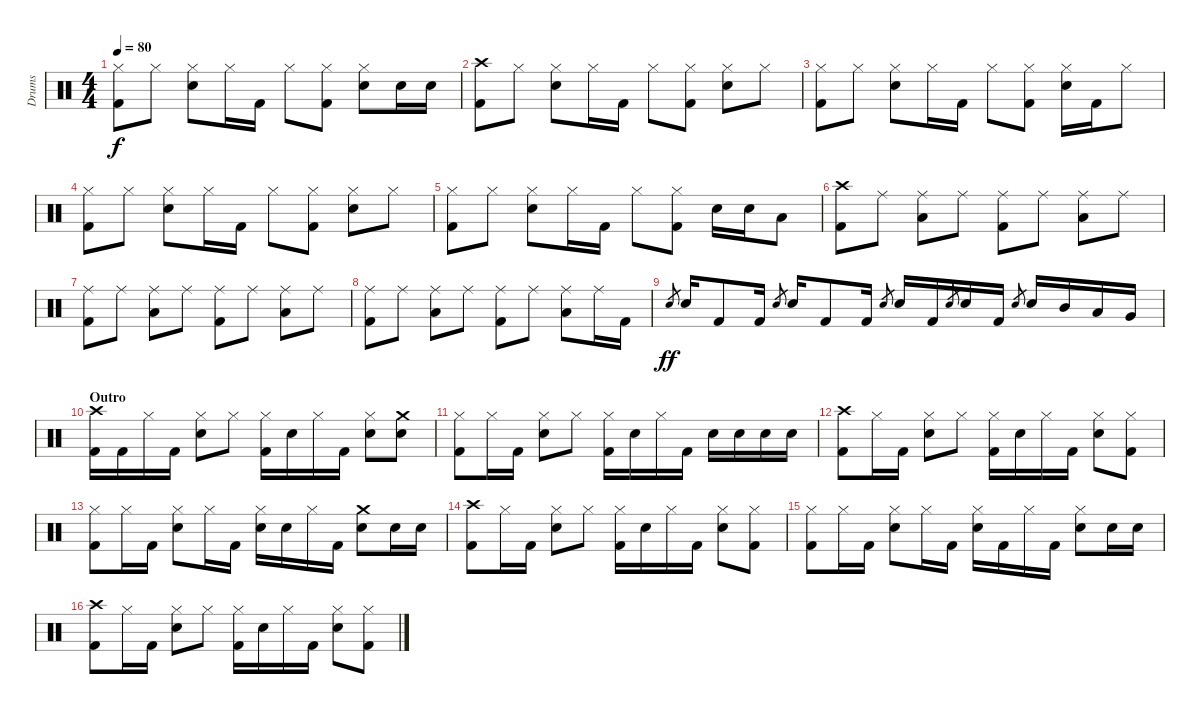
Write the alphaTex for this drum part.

\track ("Drums" "Drums") {instrument percussion}
\staff {score}
\articulation defaults
\ts (4 4)
\tempo 80
\clef neutral
\ks c
("Hi-Hat (closed)" "Kick (hit) 2").8{dy f} "Hi-Hat (closed)".8 ("Hi-Hat (closed)" "Snare (hit) 2").8 "Hi-Hat (closed)".16 "Kick (hit) 2".16 "Hi-Hat (closed)".8 ("Hi-Hat (closed)" "Kick (hit) 2").8 ("Hi-Hat (closed)" "Snare (hit) 2").8 "Snare (hit) 2".16 "Snare (hit) 2".16 |
("Crash high (hit)" "Kick (hit) 2").8 "Hi-Hat (closed)".8 ("Hi-Hat (closed)" "Snare (hit) 2").8 "Hi-Hat (closed)".16 "Kick (hit) 2".16 "Hi-Hat (closed)".8 ("Hi-Hat (closed)" "Kick (hit) 2").8 ("Hi-Hat (closed)" "Snare (hit) 2").8 "Hi-Hat (closed)".8 |
("Hi-Hat (closed)" "Kick (hit) 2").8 "Hi-Hat (closed)".8 ("Hi-Hat (closed)" "Snare (hit) 2").8 "Hi-Hat (closed)".16 "Kick (hit) 2".16 "Hi-Hat (closed)".8 ("Hi-Hat (closed)" "Kick (hit) 2").8 ("Hi-Hat (closed)" "Snare (hit) 2").16 "Kick (hit) 2".16 "Hi-Hat (closed)".8 |
("Hi-Hat (closed)" "Kick (hit) 2").8 "Hi-Hat (closed)".8 ("Hi-Hat (closed)" "Snare (hit) 2").8 "Hi-Hat (closed)".16 "Kick (hit) 2".16 "Hi-Hat (closed)".8 ("Hi-Hat (closed)" "Kick (hit) 2").8 ("Hi-Hat (closed)" "Snare (hit) 2").8 "Hi-Hat (closed)".8 |
("Hi-Hat (closed)" "Kick (hit) 2").8 "Hi-Hat (closed)".8 ("Hi-Hat (closed)" "Snare (hit) 2").8 "Hi-Hat (closed)".16 "Kick (hit) 2".16 "Hi-Hat (closed)".8 ("Hi-Hat (closed)" "Kick (hit) 2").8 "Snare (hit) 2".16 "Snare (hit) 2".16 "Low Tom (hit)".8 |
("Crash high (hit)" "Kick (hit) 2").8 "Ride (middle)".8 ("Ride (middle)" "Low Tom (hit)").8 "Ride (middle)".8 ("Ride (middle)" "Kick (hit) 2").8 "Ride (middle)".8 ("Ride (middle)" "Low Tom (hit)").8 "Ride (middle)".8 |
("Ride (middle)" "Kick (hit) 2").8 "Ride (middle)".8 ("Ride (middle)" "Low Tom (hit)").8 "Ride (middle)".8 ("Ride (middle)" "Kick (hit) 2").8 "Ride (middle)".8 ("Ride (middle)" "Low Tom (hit)").8 "Ride (middle)".8 |
("Ride (middle)" "Kick (hit) 2").8 "Ride (middle)".8 ("Ride (middle)" "Low Tom (hit)").8 "Ride (middle)".8 ("Ride (middle)" "Kick (hit) 2").8 "Ride (middle)".8 ("Ride (middle)" "Low Tom (hit)").8 "Ride (middle)".16 "Kick (hit) 2".16 |
"Snare (hit) 2".8{gr dy ff} "Snare (hit) 2".16 "Kick (hit) 2".8 "Kick (hit) 2".16 "Snare (hit) 2".8{gr} "Snare (hit) 2".16 "Kick (hit) 2".8 "Kick (hit) 2".16 "Snare (hit) 2".8{gr} "Snare (hit) 2".16 "Kick (hit) 2".16 "Snare (hit) 2".8{gr} "Snare (hit) 2".16 "Kick (hit) 2".16 "Snare (hit) 2".8{gr} "Snare (hit) 2".16 "Mid Tom (hit)".16 "Low Tom (hit)".16 "Very Low Tom (hit)".16 |
\section ("" "Outro")
("Crash high (hit)" "Kick (hit) 2").16 "Kick (hit) 2".16 "Hi-Hat (closed)".16 "Kick (hit) 2".16 ("Hi-Hat (closed)" "Snare (hit) 2").8 "Hi-Hat (closed)".8 ("Hi-Hat (closed)" "Kick (hit) 2").16 "Snare (hit) 2".16 "Hi-Hat (closed)".16 "Kick (hit) 2".16 ("Hi-Hat (closed)" "Snare (hit) 2").8 ("Crash medium (hit)" "Snare (hit) 2").8 |
("Hi-Hat (closed)" "Kick (hit) 2").8 "Hi-Hat (closed)".16 "Kick (hit) 2".16 ("Hi-Hat (closed)" "Snare (hit) 2").8 "Hi-Hat (closed)".8 ("Hi-Hat (closed)" "Kick (hit) 2").16 "Snare (hit) 2".16 "Hi-Hat (closed)".16 "Kick (hit) 2".16 "Snare (hit) 2".16 "Snare (hit) 2".16 "Snare (hit) 2".16 "Snare (hit) 2".16 |
("Crash high (hit)" "Kick (hit) 2").8 "Hi-Hat (closed)".16 "Kick (hit) 2".16 ("Hi-Hat (closed)" "Snare (hit) 2").8 "Hi-Hat (closed)".8 ("Hi-Hat (closed)" "Kick (hit) 2").16 "Snare (hit) 2".16 "Hi-Hat (closed)".16 "Kick (hit) 2".16 ("Hi-Hat (closed)" "Snare (hit) 2").8 ("Hi-Hat (closed)" "Kick (hit) 2").8 |
("Hi-Hat (closed)" "Kick (hit) 2").8 "Hi-Hat (closed)".16 "Kick (hit) 2".16 ("Hi-Hat (closed)" "Snare (hit) 2").8 "Hi-Hat (closed)".16 "Kick (hit) 2".16 ("Hi-Hat (closed)" "Snare (hit) 2").16 "Snare (hit) 2".16 "Hi-Hat (closed)".16 "Kick (hit) 2".16 ("Crash medium (hit)" "Snare (hit) 2").8 "Snare (hit) 2".16 "Snare (hit) 2".16 |
("Crash high (hit)" "Kick (hit) 2").8 "Hi-Hat (closed)".16 "Kick (hit) 2".16 ("Hi-Hat (closed)" "Snare (hit) 2").8 "Hi-Hat (closed)".8 ("Hi-Hat (closed)" "Kick (hit) 2").16 "Snare (hit) 2".16 "Hi-Hat (closed)".16 "Kick (hit) 2".16 ("Hi-Hat (closed)" "Snare (hit) 2").8 ("Hi-Hat (closed)" "Kick (hit) 2").8 |
("Hi-Hat (closed)" "Kick (hit) 2").8 "Hi-Hat (closed)".16 "Kick (hit) 2".16 ("Hi-Hat (closed)" "Snare (hit) 2").8 "Hi-Hat (closed)".16 "Kick (hit) 2".16 ("Hi-Hat (closed)" "Snare (hit) 2").16 "Kick (hit) 2".16 "Hi-Hat (closed)".16 "Kick (hit) 2".16 ("Hi-Hat (closed)" "Snare (hit) 2").8 "Snare (hit) 2".16 "Snare (hit) 2".16 |
("Crash high (hit)" "Kick (hit) 2").8 "Hi-Hat (closed)".16 "Kick (hit) 2".16 ("Hi-Hat (closed)" "Snare (hit) 2").8 "Hi-Hat (closed)".8 ("Hi-Hat (closed)" "Kick (hit) 2").16 "Snare (hit) 2".16 "Hi-Hat (closed)".16 "Kick (hit) 2".16 ("Hi-Hat (closed)" "Snare (hit) 2").8 ("Hi-Hat (closed)" "Kick (hit) 2").8
